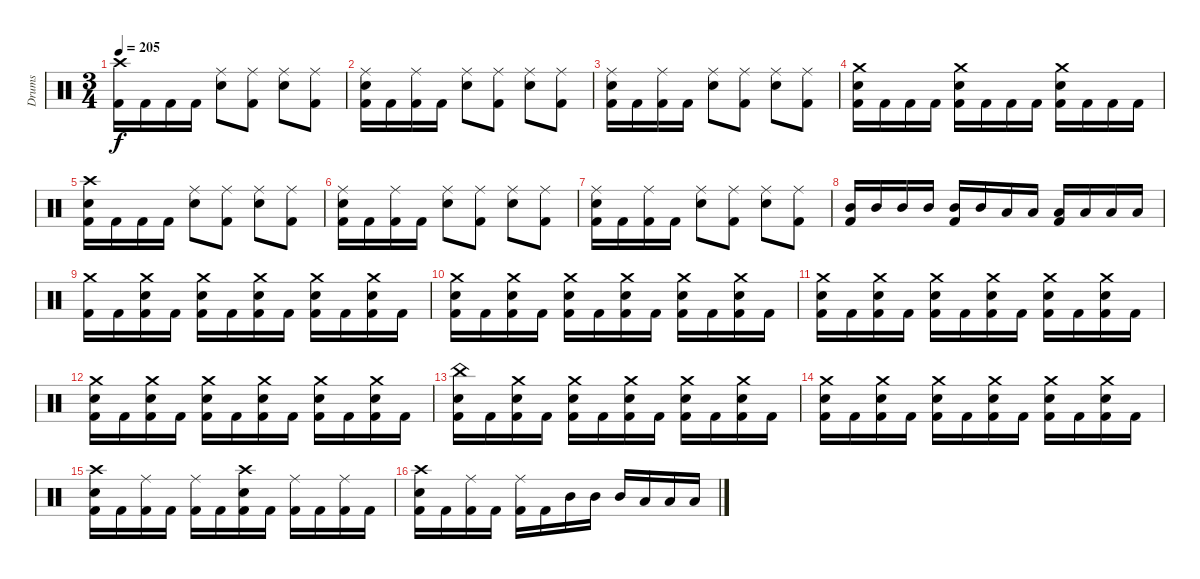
\track ("Drums" "Drums") {instrument percussion}
\staff {score}
\articulation defaults
\ts (3 4)
\tempo 205
\clef neutral
\ks c
("Crash high (hit)" "Kick (hit) 2").16{dy f} "Kick (hit) 2".16 "Kick (hit) 2".16 "Kick (hit) 2".16 ("Ride (middle)" "Snare (hit) 2").8 ("Ride (middle)" "Kick (hit) 2").8 ("Ride (middle)" "Snare (hit) 2").8 ("Ride (middle)" "Kick (hit) 2").8 |
("Ride (middle)" "Snare (hit) 2" "Kick (hit) 2").16 "Kick (hit) 2".16 ("Ride (middle)" "Kick (hit) 2").16 "Kick (hit) 2".16 ("Ride (middle)" "Snare (hit) 2").8 ("Ride (middle)" "Kick (hit) 2").8 ("Ride (middle)" "Snare (hit) 2").8 ("Ride (middle)" "Kick (hit) 2").8 |
("Ride (middle)" "Snare (hit) 2" "Kick (hit) 2").16 "Kick (hit) 2".16 ("Ride (middle)" "Kick (hit) 2").16 "Kick (hit) 2".16 ("Ride (middle)" "Snare (hit) 2").8 ("Ride (middle)" "Kick (hit) 2").8 ("Ride (middle)" "Snare (hit) 2").8 ("Ride (middle)" "Kick (hit) 2").8 |
("Crash medium (hit)" "Snare (hit) 2" "Kick (hit) 2").16 "Kick (hit) 2".16 "Kick (hit) 2".16 "Kick (hit) 2".16 ("Crash medium (hit)" "Snare (hit) 2" "Kick (hit) 2").16 "Kick (hit) 2".16 "Kick (hit) 2".16 "Kick (hit) 2".16 ("Crash medium (hit)" "Snare (hit) 2" "Kick (hit) 2").16 "Kick (hit) 2".16 "Kick (hit) 2".16 "Kick (hit) 2".16 |
("Crash high (hit)" "Snare (hit) 2" "Kick (hit) 2").16 "Kick (hit) 2".16 "Kick (hit) 2".16 "Kick (hit) 2".16 ("Ride (middle)" "Snare (hit) 2").8 ("Ride (middle)" "Kick (hit) 2").8 ("Ride (middle)" "Snare (hit) 2").8 ("Ride (middle)" "Kick (hit) 2").8 |
("Ride (middle)" "Snare (hit) 2" "Kick (hit) 2").16 "Kick (hit) 2".16 ("Ride (middle)" "Kick (hit) 2").16 "Kick (hit) 2".16 ("Ride (middle)" "Snare (hit) 2").8 ("Ride (middle)" "Kick (hit) 2").8 ("Ride (middle)" "Snare (hit) 2").8 ("Ride (middle)" "Kick (hit) 2").8 |
("Ride (middle)" "Snare (hit) 2" "Kick (hit) 2").16 "Kick (hit) 2".16 ("Ride (middle)" "Kick (hit) 2").16 "Kick (hit) 2".16 ("Ride (middle)" "Snare (hit) 2").8 ("Ride (middle)" "Kick (hit) 2").8 ("Ride (middle)" "Snare (hit) 2").8 ("Ride (middle)" "Kick (hit) 2").8 |
("Mid Tom (hit)" "Kick (hit) 2").16 "Mid Tom (hit)".16 "Mid Tom (hit)".16 "Mid Tom (hit)".16 ("Mid Tom (hit)" "Kick (hit) 2").16 "Mid Tom (hit)".16 "Low Tom (hit)".16 "Low Tom (hit)".16 ("Low Tom (hit)" "Kick (hit) 2").16 "Low Tom (hit)".16 "Low Tom (hit)".16 "Low Tom (hit)".16 |
("Crash medium (hit)" "Kick (hit) 2").16 "Kick (hit) 2".16 ("Crash medium (hit)" "Snare (hit) 2" "Kick (hit) 2").16 "Kick (hit) 2".16 ("Crash medium (hit)" "Snare (hit) 2" "Kick (hit) 2").16 "Kick (hit) 2".16 ("Crash medium (hit)" "Snare (hit) 2" "Kick (hit) 2").16 "Kick (hit) 2".16 ("Crash medium (hit)" "Snare (hit) 2" "Kick (hit) 2").16 "Kick (hit) 2".16 ("Crash medium (hit)" "Snare (hit) 2" "Kick (hit) 2").16 "Kick (hit) 2".16 |
("Crash medium (hit)" "Snare (hit) 2" "Kick (hit) 2").16 "Kick (hit) 2".16 ("Crash medium (hit)" "Snare (hit) 2" "Kick (hit) 2").16 "Kick (hit) 2".16 ("Crash medium (hit)" "Snare (hit) 2" "Kick (hit) 2").16 "Kick (hit) 2".16 ("Crash medium (hit)" "Snare (hit) 2" "Kick (hit) 2").16 "Kick (hit) 2".16 ("Crash medium (hit)" "Snare (hit) 2" "Kick (hit) 2").16 "Kick (hit) 2".16 ("Crash medium (hit)" "Snare (hit) 2" "Kick (hit) 2").16 "Kick (hit) 2".16 |
("Crash medium (hit)" "Snare (hit) 2" "Kick (hit) 2").16 "Kick (hit) 2".16 ("Crash medium (hit)" "Snare (hit) 2" "Kick (hit) 2").16 "Kick (hit) 2".16 ("Crash medium (hit)" "Snare (hit) 2" "Kick (hit) 2").16 "Kick (hit) 2".16 ("Crash medium (hit)" "Snare (hit) 2" "Kick (hit) 2").16 "Kick (hit) 2".16 ("Crash medium (hit)" "Snare (hit) 2" "Kick (hit) 2").16 "Kick (hit) 2".16 ("Crash medium (hit)" "Snare (hit) 2" "Kick (hit) 2").16 "Kick (hit) 2".16 |
("Crash medium (hit)" "Snare (hit) 2" "Kick (hit) 2").16 "Kick (hit) 2".16 ("Crash medium (hit)" "Snare (hit) 2" "Kick (hit) 2").16 "Kick (hit) 2".16 ("Crash medium (hit)" "Snare (hit) 2" "Kick (hit) 2").16 "Kick (hit) 2".16 ("Crash medium (hit)" "Snare (hit) 2" "Kick (hit) 2").16 "Kick (hit) 2".16 ("Crash medium (hit)" "Snare (hit) 2" "Kick (hit) 2").16 "Kick (hit) 2".16 ("Crash medium (hit)" "Snare (hit) 2" "Kick (hit) 2").16 "Kick (hit) 2".16 |
("China (hit)" "Snare (hit) 2" "Kick (hit) 2").16 "Kick (hit) 2".16 ("Crash medium (hit)" "Snare (hit) 2" "Kick (hit) 2").16 "Kick (hit) 2".16 ("Crash medium (hit)" "Snare (hit) 2" "Kick (hit) 2").16 "Kick (hit) 2".16 ("Crash medium (hit)" "Snare (hit) 2" "Kick (hit) 2").16 "Kick (hit) 2".16 ("Crash medium (hit)" "Snare (hit) 2" "Kick (hit) 2").16 "Kick (hit) 2".16 ("Crash medium (hit)" "Snare (hit) 2" "Kick (hit) 2").16 "Kick (hit) 2".16 |
("Crash medium (hit)" "Snare (hit) 2" "Kick (hit) 2").16 "Kick (hit) 2".16 ("Crash medium (hit)" "Snare (hit) 2" "Kick (hit) 2").16 "Kick (hit) 2".16 ("Crash medium (hit)" "Snare (hit) 2" "Kick (hit) 2").16 "Kick (hit) 2".16 ("Crash medium (hit)" "Snare (hit) 2" "Kick (hit) 2").16 "Kick (hit) 2".16 ("Crash medium (hit)" "Snare (hit) 2" "Kick (hit) 2").16 "Kick (hit) 2".16 ("Crash medium (hit)" "Snare (hit) 2" "Kick (hit) 2").16 "Kick (hit) 2".16 |
("Crash high (hit)" "Snare (hit) 2" "Kick (hit) 2").16 "Kick (hit) 2".16 ("Ride (middle)" "Kick (hit) 2").16 "Kick (hit) 2".16 ("Ride (middle)" "Kick (hit) 2").16 "Kick (hit) 2".16 ("Crash high (hit)" "Snare (hit) 2" "Kick (hit) 2").16 "Kick (hit) 2".16 ("Ride (middle)" "Kick (hit) 2").16 "Kick (hit) 2".16 ("Ride (middle)" "Kick (hit) 2").16 "Kick (hit) 2".16 |
("Crash high (hit)" "Snare (hit) 2" "Kick (hit) 2").16 "Kick (hit) 2".16 ("Ride (middle)" "Kick (hit) 2").16 "Kick (hit) 2".16 ("Ride (middle)" "Kick (hit) 2").16 "Kick (hit) 2".16 "Mid Tom (hit)".16 "Mid Tom (hit)".16 "Mid Tom (hit)".16 "Low Tom (hit)".16 "Low Tom (hit)".16 "Low Tom (hit)".16
